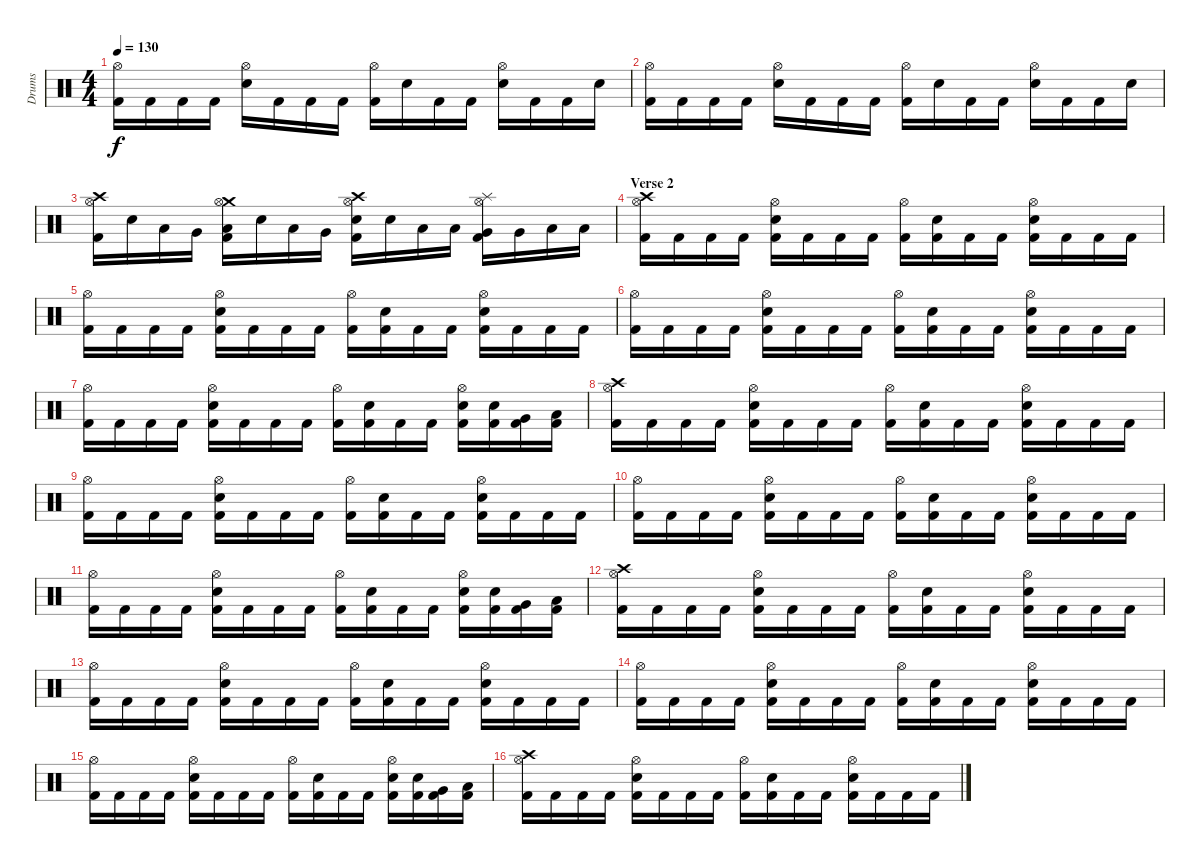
\track ("Drums" "Drums") {instrument percussion}
\staff {score}
\articulation defaults
\ts (4 4)
\tempo 130
\clef neutral
\ks c
("Hi-Hat (open)" "Kick (hit) 2").16{dy f} "Kick (hit) 2".16 "Kick (hit) 2".16 "Kick (hit) 2".16 ("Hi-Hat (open)" "Electric Snare (hit)").16 "Kick (hit) 2".16 "Kick (hit) 2".16 "Kick (hit) 2".16 ("Hi-Hat (open)" "Kick (hit) 2").16 "Electric Snare (hit)".16 "Kick (hit) 2".16 "Kick (hit) 2".16 ("Hi-Hat (open)" "Electric Snare (hit)").16 "Kick (hit) 2".16 "Kick (hit) 2".16 "Electric Snare (hit)".16 |
("Hi-Hat (open)" "Kick (hit) 2").16 "Kick (hit) 2".16 "Kick (hit) 2".16 "Kick (hit) 2".16 ("Hi-Hat (open)" "Electric Snare (hit)").16 "Kick (hit) 2".16 "Kick (hit) 2".16 "Kick (hit) 2".16 ("Hi-Hat (open)" "Kick (hit) 2").16 "Electric Snare (hit)".16 "Kick (hit) 2".16 "Kick (hit) 2".16 ("Hi-Hat (open)" "Electric Snare (hit)").16 "Kick (hit) 2".16 "Kick (hit) 2".16 "Electric Snare (hit)".16 |
("Crash high (hit)" "Hi-Hat (open)" "Kick (hit) 2").16 "Electric Snare (hit)".16 "Low Tom (hit)".16 "Very Low Tom (hit)".16 ("Crash medium (hit)" "Hi-Hat (open)" "Low Floor Tom (hit)" "Kick (hit) 2").16 "Electric Snare (hit)".16 "Low Tom (hit)".16 "Very Low Tom (hit)".16 ("Crash high (hit)" "Hi-Hat (open)" "Electric Snare (hit)" "Kick (hit) 2").16 "Electric Snare (hit)".16 "Low Tom (hit)".16 "Low Tom (hit)".16 ("Splash (hit)" "Hi-Hat (open)" "Very Low Tom (hit)" "Kick (hit) 2").16 "Very Low Tom (hit)".16 "Low Floor Tom (hit)".16 "Low Floor Tom (hit)".16 |
\section ("" "Verse 2")
("Crash high (hit)" "Hi-Hat (open)" "Kick (hit) 2").16 "Kick (hit) 2".16 "Kick (hit) 2".16 "Kick (hit) 2".16 ("Hi-Hat (open)" "Electric Snare (hit)" "Kick (hit) 2").16 "Kick (hit) 2".16 "Kick (hit) 2".16 "Kick (hit) 2".16 ("Hi-Hat (open)" "Kick (hit) 2").16 ("Electric Snare (hit)" "Kick (hit) 2").16 "Kick (hit) 2".16 "Kick (hit) 2".16 ("Hi-Hat (open)" "Electric Snare (hit)" "Kick (hit) 2").16 "Kick (hit) 2".16 "Kick (hit) 2".16 "Kick (hit) 2".16 |
("Hi-Hat (open)" "Kick (hit) 2").16 "Kick (hit) 2".16 "Kick (hit) 2".16 "Kick (hit) 2".16 ("Hi-Hat (open)" "Electric Snare (hit)" "Kick (hit) 2").16 "Kick (hit) 2".16 "Kick (hit) 2".16 "Kick (hit) 2".16 ("Hi-Hat (open)" "Kick (hit) 2").16 ("Electric Snare (hit)" "Kick (hit) 2").16 "Kick (hit) 2".16 "Kick (hit) 2".16 ("Hi-Hat (open)" "Electric Snare (hit)" "Kick (hit) 2").16 "Kick (hit) 2".16 "Kick (hit) 2".16 "Kick (hit) 2".16 |
("Hi-Hat (open)" "Kick (hit) 2").16 "Kick (hit) 2".16 "Kick (hit) 2".16 "Kick (hit) 2".16 ("Hi-Hat (open)" "Electric Snare (hit)" "Kick (hit) 2").16 "Kick (hit) 2".16 "Kick (hit) 2".16 "Kick (hit) 2".16 ("Hi-Hat (open)" "Kick (hit) 2").16 ("Electric Snare (hit)" "Kick (hit) 2").16 "Kick (hit) 2".16 "Kick (hit) 2".16 ("Hi-Hat (open)" "Electric Snare (hit)" "Kick (hit) 2").16 "Kick (hit) 2".16 "Kick (hit) 2".16 "Kick (hit) 2".16 |
("Hi-Hat (open)" "Kick (hit) 2").16 "Kick (hit) 2".16 "Kick (hit) 2".16 "Kick (hit) 2".16 ("Hi-Hat (open)" "Electric Snare (hit)" "Kick (hit) 2").16 "Kick (hit) 2".16 "Kick (hit) 2".16 "Kick (hit) 2".16 ("Hi-Hat (open)" "Kick (hit) 2").16 ("Electric Snare (hit)" "Kick (hit) 2").16 "Kick (hit) 2".16 "Kick (hit) 2".16 ("Hi-Hat (open)" "Electric Snare (hit)" "Kick (hit) 2").16 ("Electric Snare (hit)" "Kick (hit) 2").16 ("Very Low Tom (hit)" "Kick (hit) 2").16 ("Low Floor Tom (hit)" "Kick (hit) 2").16 |
("Crash high (hit)" "Hi-Hat (open)" "Kick (hit) 2").16 "Kick (hit) 2".16 "Kick (hit) 2".16 "Kick (hit) 2".16 ("Hi-Hat (open)" "Electric Snare (hit)" "Kick (hit) 2").16 "Kick (hit) 2".16 "Kick (hit) 2".16 "Kick (hit) 2".16 ("Hi-Hat (open)" "Kick (hit) 2").16 ("Electric Snare (hit)" "Kick (hit) 2").16 "Kick (hit) 2".16 "Kick (hit) 2".16 ("Hi-Hat (open)" "Electric Snare (hit)" "Kick (hit) 2").16 "Kick (hit) 2".16 "Kick (hit) 2".16 "Kick (hit) 2".16 |
("Hi-Hat (open)" "Kick (hit) 2").16 "Kick (hit) 2".16 "Kick (hit) 2".16 "Kick (hit) 2".16 ("Hi-Hat (open)" "Electric Snare (hit)" "Kick (hit) 2").16 "Kick (hit) 2".16 "Kick (hit) 2".16 "Kick (hit) 2".16 ("Hi-Hat (open)" "Kick (hit) 2").16 ("Electric Snare (hit)" "Kick (hit) 2").16 "Kick (hit) 2".16 "Kick (hit) 2".16 ("Hi-Hat (open)" "Electric Snare (hit)" "Kick (hit) 2").16 "Kick (hit) 2".16 "Kick (hit) 2".16 "Kick (hit) 2".16 |
("Hi-Hat (open)" "Kick (hit) 2").16 "Kick (hit) 2".16 "Kick (hit) 2".16 "Kick (hit) 2".16 ("Hi-Hat (open)" "Electric Snare (hit)" "Kick (hit) 2").16 "Kick (hit) 2".16 "Kick (hit) 2".16 "Kick (hit) 2".16 ("Hi-Hat (open)" "Kick (hit) 2").16 ("Electric Snare (hit)" "Kick (hit) 2").16 "Kick (hit) 2".16 "Kick (hit) 2".16 ("Hi-Hat (open)" "Electric Snare (hit)" "Kick (hit) 2").16 "Kick (hit) 2".16 "Kick (hit) 2".16 "Kick (hit) 2".16 |
("Hi-Hat (open)" "Kick (hit) 2").16 "Kick (hit) 2".16 "Kick (hit) 2".16 "Kick (hit) 2".16 ("Hi-Hat (open)" "Electric Snare (hit)" "Kick (hit) 2").16 "Kick (hit) 2".16 "Kick (hit) 2".16 "Kick (hit) 2".16 ("Hi-Hat (open)" "Kick (hit) 2").16 ("Electric Snare (hit)" "Kick (hit) 2").16 "Kick (hit) 2".16 "Kick (hit) 2".16 ("Hi-Hat (open)" "Electric Snare (hit)" "Kick (hit) 2").16 ("Electric Snare (hit)" "Kick (hit) 2").16 ("Very Low Tom (hit)" "Kick (hit) 2").16 ("Low Floor Tom (hit)" "Kick (hit) 2").16 |
("Crash high (hit)" "Hi-Hat (open)" "Kick (hit) 2").16 "Kick (hit) 2".16 "Kick (hit) 2".16 "Kick (hit) 2".16 ("Hi-Hat (open)" "Electric Snare (hit)" "Kick (hit) 2").16 "Kick (hit) 2".16 "Kick (hit) 2".16 "Kick (hit) 2".16 ("Hi-Hat (open)" "Kick (hit) 2").16 ("Electric Snare (hit)" "Kick (hit) 2").16 "Kick (hit) 2".16 "Kick (hit) 2".16 ("Hi-Hat (open)" "Electric Snare (hit)" "Kick (hit) 2").16 "Kick (hit) 2".16 "Kick (hit) 2".16 "Kick (hit) 2".16 |
("Hi-Hat (open)" "Kick (hit) 2").16 "Kick (hit) 2".16 "Kick (hit) 2".16 "Kick (hit) 2".16 ("Hi-Hat (open)" "Electric Snare (hit)" "Kick (hit) 2").16 "Kick (hit) 2".16 "Kick (hit) 2".16 "Kick (hit) 2".16 ("Hi-Hat (open)" "Kick (hit) 2").16 ("Electric Snare (hit)" "Kick (hit) 2").16 "Kick (hit) 2".16 "Kick (hit) 2".16 ("Hi-Hat (open)" "Electric Snare (hit)" "Kick (hit) 2").16 "Kick (hit) 2".16 "Kick (hit) 2".16 "Kick (hit) 2".16 |
("Hi-Hat (open)" "Kick (hit) 2").16 "Kick (hit) 2".16 "Kick (hit) 2".16 "Kick (hit) 2".16 ("Hi-Hat (open)" "Electric Snare (hit)" "Kick (hit) 2").16 "Kick (hit) 2".16 "Kick (hit) 2".16 "Kick (hit) 2".16 ("Hi-Hat (open)" "Kick (hit) 2").16 ("Electric Snare (hit)" "Kick (hit) 2").16 "Kick (hit) 2".16 "Kick (hit) 2".16 ("Hi-Hat (open)" "Electric Snare (hit)" "Kick (hit) 2").16 "Kick (hit) 2".16 "Kick (hit) 2".16 "Kick (hit) 2".16 |
("Hi-Hat (open)" "Kick (hit) 2").16 "Kick (hit) 2".16 "Kick (hit) 2".16 "Kick (hit) 2".16 ("Hi-Hat (open)" "Electric Snare (hit)" "Kick (hit) 2").16 "Kick (hit) 2".16 "Kick (hit) 2".16 "Kick (hit) 2".16 ("Hi-Hat (open)" "Kick (hit) 2").16 ("Electric Snare (hit)" "Kick (hit) 2").16 "Kick (hit) 2".16 "Kick (hit) 2".16 ("Hi-Hat (open)" "Electric Snare (hit)" "Kick (hit) 2").16 ("Electric Snare (hit)" "Kick (hit) 2").16 ("Very Low Tom (hit)" "Kick (hit) 2").16 ("Low Floor Tom (hit)" "Kick (hit) 2").16 |
("Crash high (hit)" "Hi-Hat (open)" "Kick (hit) 2").16 "Kick (hit) 2".16 "Kick (hit) 2".16 "Kick (hit) 2".16 ("Hi-Hat (open)" "Electric Snare (hit)" "Kick (hit) 2").16 "Kick (hit) 2".16 "Kick (hit) 2".16 "Kick (hit) 2".16 ("Hi-Hat (open)" "Kick (hit) 2").16 ("Electric Snare (hit)" "Kick (hit) 2").16 "Kick (hit) 2".16 "Kick (hit) 2".16 ("Hi-Hat (open)" "Electric Snare (hit)" "Kick (hit) 2").16 "Kick (hit) 2".16 "Kick (hit) 2".16 "Kick (hit) 2".16
